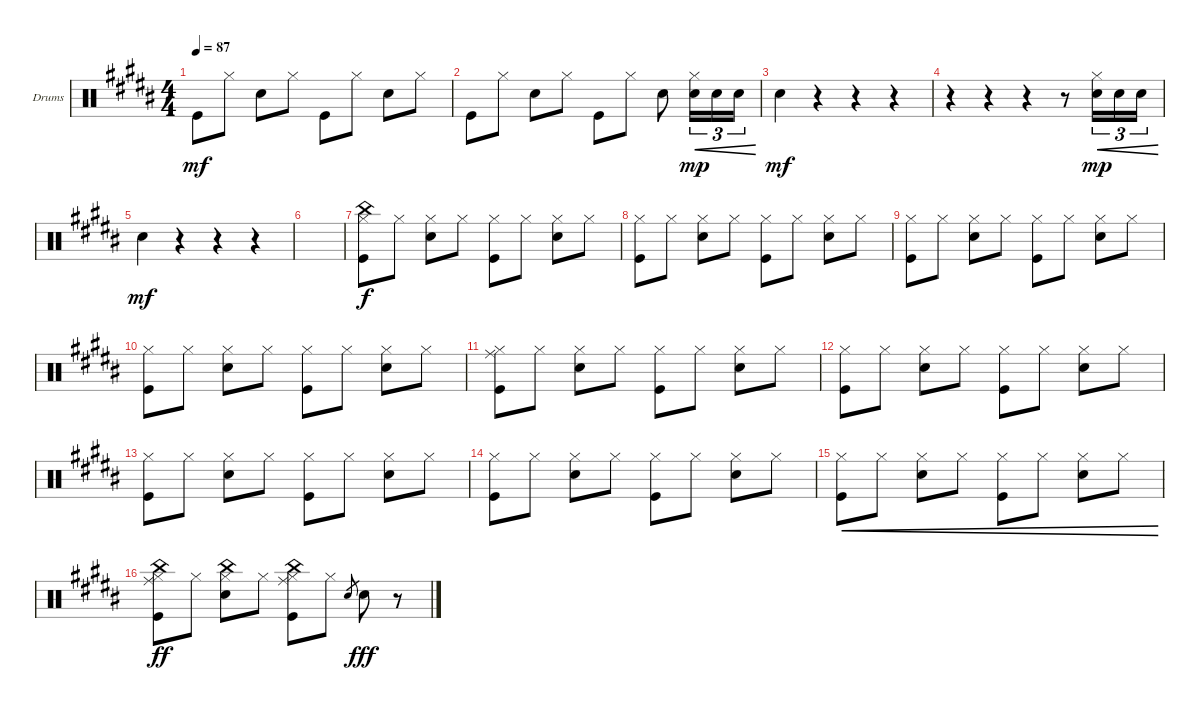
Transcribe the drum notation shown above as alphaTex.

\defaultSystemsLayout 4
\bracketExtendMode groupsimilarinstruments
\firstSystemTrackNameOrientation horizontal
\otherSystemsTrackNameOrientation horizontal
\track ("Drumkit" "Drums") {instrument percussion}
\staff {score}
\articulation defaults
\ts (4 4)
\tempo 87
\clef neutral
\ks b "Kick (hit)".8{dy mf} "Hi-Hat (closed)".8 "Snare (hit) 2".8 "Hi-Hat (closed)".8 "Kick (hit)".8 "Hi-Hat (closed)".8 "Snare (hit) 2".8 "Hi-Hat (closed)".8
|
"Kick (hit)".8 "Hi-Hat (closed)".8 "Snare (hit) 2".8 "Hi-Hat (closed)".8 "Kick (hit)".8 "Hi-Hat (closed)".8 "Snare (hit) 2".8 ("Hi-Hat (closed)" "Snare (hit) 2").16{tu (3 2) cre dy mp} "Snare (hit) 2".16{tu (3 2) cre} "Snare (hit) 2".16{tu (3 2) cre} |
"Snare (hit) 2".4{dy mf} r.4 r.4 r.4 |
r.4 r.4 r.4 r.8 ("Hi-Hat (closed)" "Snare (hit) 2").16{tu (3 2) cre dy mp} "Snare (hit) 2".16{tu (3 2) cre} "Snare (hit) 2".16{tu (3 2) cre} |
"Snare (hit) 2".4{dy mf} r.4 r.4 r.4 |
|
("Kick (hit)" "Hi-Hat (closed)" "China (hit)").8{dy f} "Hi-Hat (closed)".8 ("Snare (hit) 2" "Hi-Hat (closed)").8 "Hi-Hat (closed)".8 ("Kick (hit)" "Hi-Hat (closed)").8 "Hi-Hat (closed)".8 ("Snare (hit) 2" "Hi-Hat (closed)").8 "Hi-Hat (closed)".8 |
("Kick (hit)" "Hi-Hat (closed)").8 "Hi-Hat (closed)".8 ("Snare (hit) 2" "Hi-Hat (closed)").8 "Hi-Hat (closed)".8 ("Kick (hit)" "Hi-Hat (closed)").8 "Hi-Hat (closed)".8 ("Snare (hit) 2" "Hi-Hat (closed)").8 "Hi-Hat (closed)".8 |
("Kick (hit)" "Hi-Hat (closed)").8 "Hi-Hat (closed)".8 ("Snare (hit) 2" "Hi-Hat (closed)").8 "Hi-Hat (closed)".8 ("Kick (hit)" "Hi-Hat (closed)").8 "Hi-Hat (closed)".8 ("Snare (hit) 2" "Hi-Hat (closed)").8 "Hi-Hat (closed)".8 |
("Kick (hit)" "Hi-Hat (closed)").8 "Hi-Hat (closed)".8 ("Snare (hit) 2" "Hi-Hat (closed)").8 "Hi-Hat (closed)".8 ("Kick (hit)" "Hi-Hat (closed)").8 "Hi-Hat (closed)".8 ("Snare (hit) 2" "Hi-Hat (closed)").8 "Hi-Hat (closed)".8 |
("Kick (hit)" "Hi-Hat (closed)" "Ride (middle)").8 "Hi-Hat (closed)".8 ("Snare (hit) 2" "Hi-Hat (closed)").8 "Hi-Hat (closed)".8 ("Kick (hit)" "Hi-Hat (closed)").8 "Hi-Hat (closed)".8 ("Snare (hit) 2" "Hi-Hat (closed)").8 "Hi-Hat (closed)".8 |
("Kick (hit)" "Hi-Hat (closed)").8 "Hi-Hat (closed)".8 ("Snare (hit) 2" "Hi-Hat (closed)").8 "Hi-Hat (closed)".8 ("Kick (hit)" "Hi-Hat (closed)").8 "Hi-Hat (closed)".8 ("Snare (hit) 2" "Hi-Hat (closed)").8 "Hi-Hat (closed)".8 |
("Kick (hit)" "Hi-Hat (closed)").8 "Hi-Hat (closed)".8 ("Snare (hit) 2" "Hi-Hat (closed)").8 "Hi-Hat (closed)".8 ("Kick (hit)" "Hi-Hat (closed)").8 "Hi-Hat (closed)".8 ("Snare (hit) 2" "Hi-Hat (closed)").8 "Hi-Hat (closed)".8 |
("Kick (hit)" "Hi-Hat (closed)").8 "Hi-Hat (closed)".8 ("Snare (hit) 2" "Hi-Hat (closed)").8 "Hi-Hat (closed)".8 ("Kick (hit)" "Hi-Hat (closed)").8 "Hi-Hat (closed)".8 ("Snare (hit) 2" "Hi-Hat (closed)").8 "Hi-Hat (closed)".8 |
("Kick (hit)" "Hi-Hat (closed)").8{cre} "Hi-Hat (closed)".8{cre} ("Snare (hit) 2" "Hi-Hat (closed)").8{cre} "Hi-Hat (closed)".8{cre} ("Kick (hit)" "Hi-Hat (closed)").8{cre} "Hi-Hat (closed)".8{cre} ("Snare (hit) 2" "Hi-Hat (closed)").8{cre} "Hi-Hat (closed)".8{cre} |
("Kick (hit)" "Hi-Hat (closed)" "China (hit)" "Ride (middle)").8{dy ff} "Hi-Hat (closed)".8 ("Snare (hit) 2" "Hi-Hat (closed)" "China (hit)").8 "Hi-Hat (closed)".8 ("Kick (hit)" "Hi-Hat (closed)" "China (hit)" "Ride (middle)").8 "Hi-Hat (closed)".8 "Snare (hit) 2".8{gr} "Snare (hit) 2".8{dy fff} r.8
